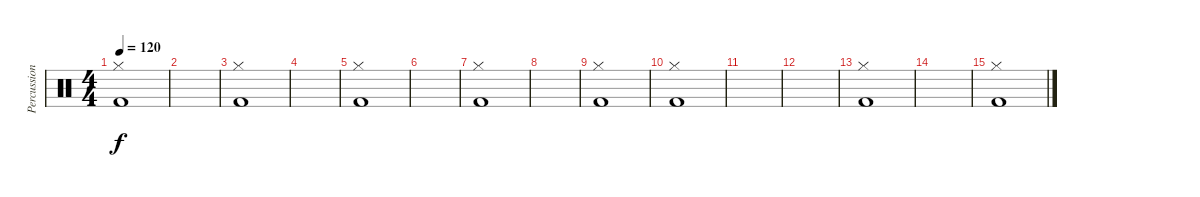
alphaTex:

\track ("Percussion" "Percussion") {instrument percussion}
\staff {score}
\articulation defaults
\ts (4 4)
\tempo 120
\clef neutral
\ks c
("Hi-Hat (closed)" "Kick (hit) 2").1{dy f} |
|
("Hi-Hat (closed)" "Kick (hit) 2").1 |
|
("Hi-Hat (closed)" "Kick (hit) 2").1 |
|
("Hi-Hat (closed)" "Kick (hit) 2").1 |
|
("Hi-Hat (closed)" "Kick (hit) 2").1 |
("Hi-Hat (closed)" "Kick (hit) 2").1 |
|
|
("Hi-Hat (closed)" "Kick (hit) 2").1 |
|
("Hi-Hat (closed)" "Kick (hit) 2").1
